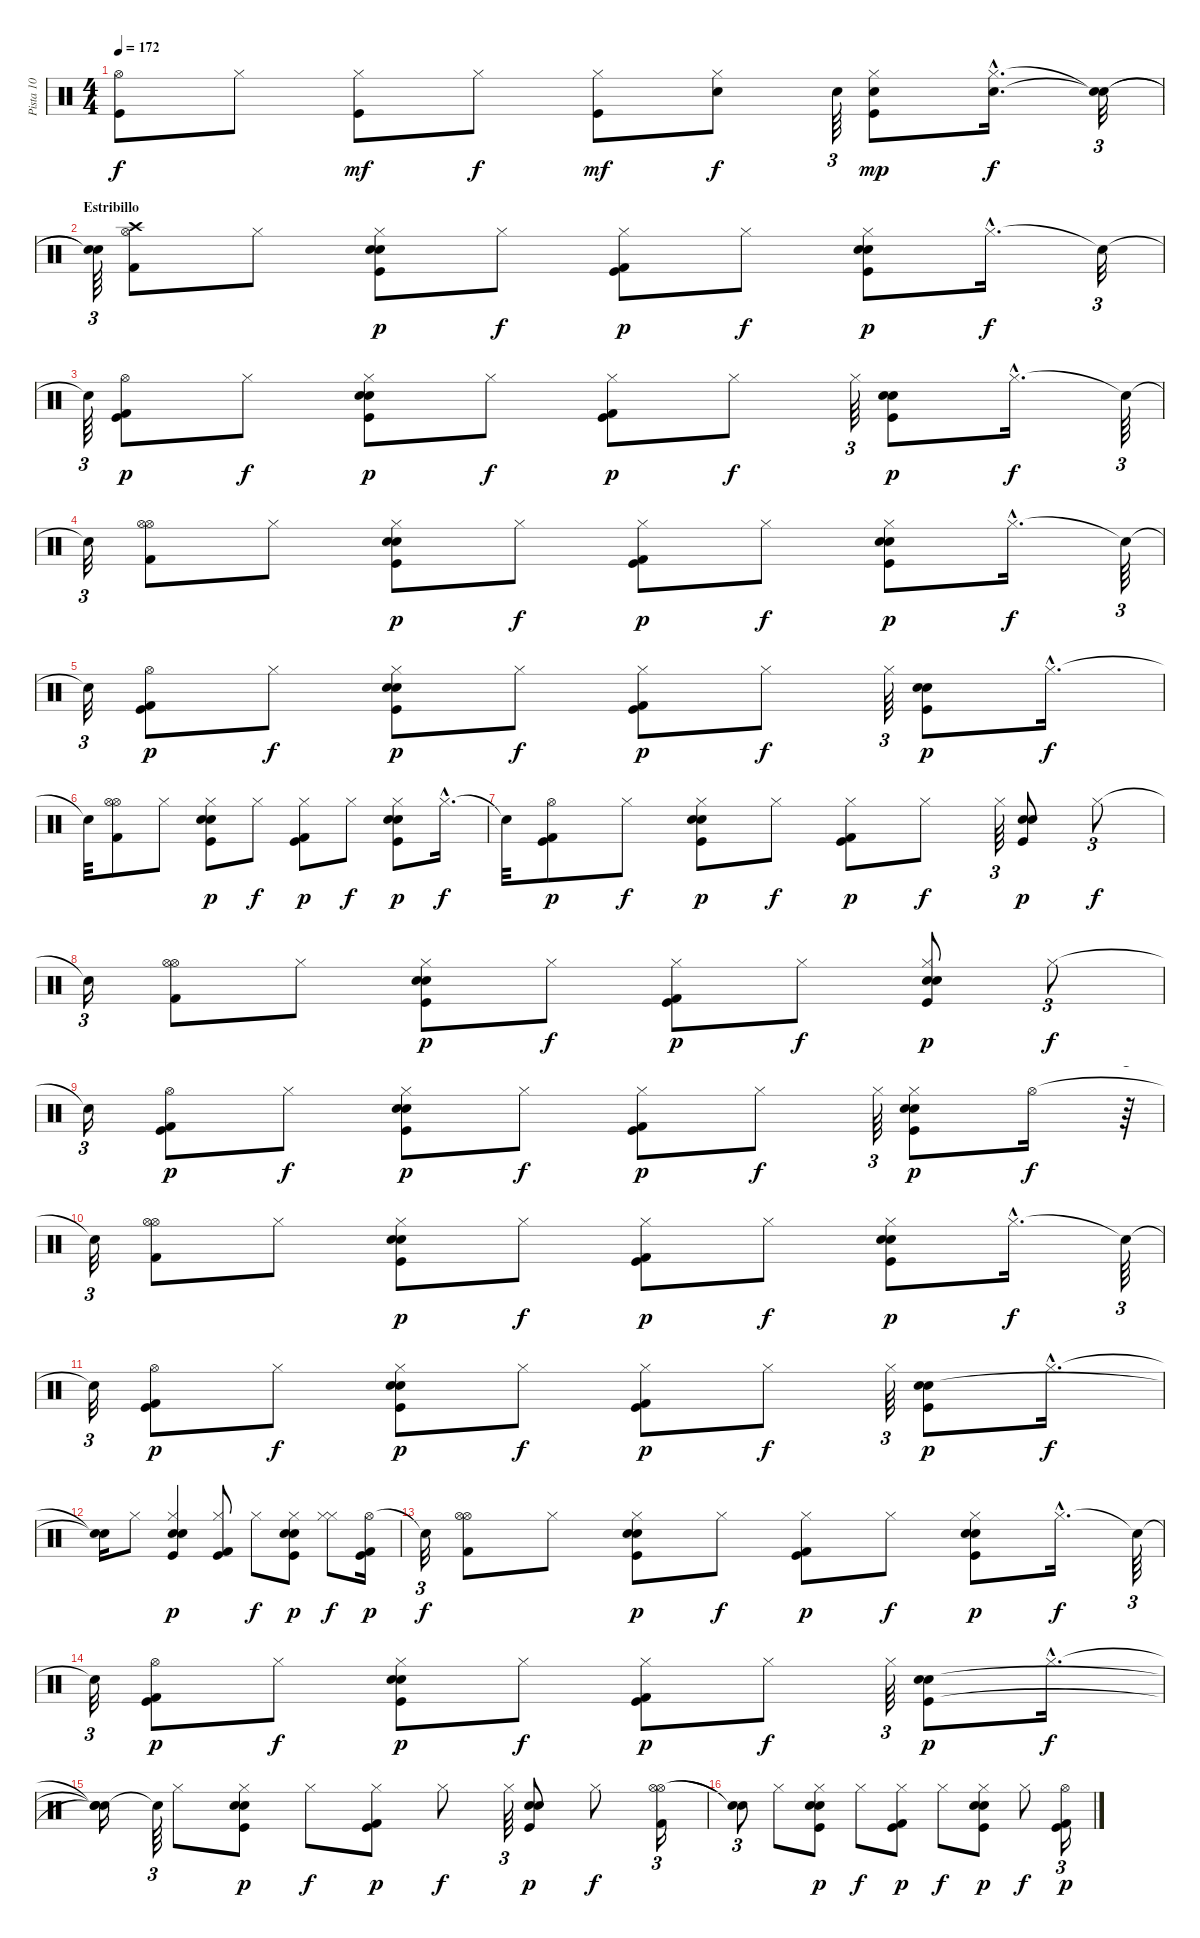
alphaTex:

\track ("Pista 10" "Pista 10") {instrument percussion}
\staff {score}
\articulation defaults
\ts (4 4)
\tempo 172
\clef neutral
\ks c
("Hi-Hat (open)" "Kick (hit)").8{dy f} "Hi-Hat (closed)".8 ("Kick (hit)" "Hi-Hat (closed)").8{dy mf} "Hi-Hat (closed)".8{dy f} ("Kick (hit)" "Hi-Hat (closed)").8{dy mf} ("Hi-Hat (closed)" "Snare (hit) 2").8{dy f} "Snare (hit) 2".64{tu (3 2)} ("Snare (hit) 2" "Hi-Hat (closed)" "Kick (hit)").8{dy mp} ("Snare (hit) 2"{hac} "Hi-Hat (closed)"{hac}).16{d dy f} ("Snare (hit)"{t} "Snare (hit)"{t}).32{tu (3 2)} |
\section ("" "Estribillo")
("Snare (hit)"{t} "Snare (hit)"{t}).64{tu (3 2)} ("Hi-Hat (open)" "Kick (hit) 2" "Crash high (hit)").8 "Hi-Hat (closed)".8 ("Hi-Hat (closed)" "Electric Snare (hit)" "Snare (hit) 2" "Kick (hit)").8{dy p} "Hi-Hat (closed)".8{dy f} ("Kick (hit) 2" "Kick (hit)" "Hi-Hat (closed)").8{dy p} "Hi-Hat (closed)".8{dy f} ("Snare (hit) 2" "Electric Snare (hit)" "Kick (hit)" "Hi-Hat (closed)").8{dy p} "Hi-Hat (closed)"{hac}.16{d dy f} "Snare (hit)"{t}.32{tu (3 2)} |
"Snare (hit)"{t}.64{tu (3 2)} ("Hi-Hat (open)" "Kick (hit) 2" "Kick (hit)").8{dy p} "Hi-Hat (closed)".8{dy f} ("Hi-Hat (closed)" "Snare (hit) 2" "Electric Snare (hit)" "Kick (hit)").8{dy p} "Hi-Hat (closed)".8{dy f} ("Hi-Hat (closed)" "Kick (hit) 2" "Kick (hit)").8{dy p} "Hi-Hat (closed)".8{dy f} "Hi-Hat (closed)".64{tu (3 2)} ("Snare (hit) 2" "Electric Snare (hit)" "Kick (hit)").8{dy p} "Hi-Hat (closed)"{hac}.16{d dy f} "Snare (hit)"{t}.64{tu (3 2)} |
"Snare (hit)"{t}.32{tu (3 2)} ("Hi-Hat (open)" "Hi-Hat (open)" "Kick (hit) 2").8 "Hi-Hat (closed)".8 ("Hi-Hat (closed)" "Electric Snare (hit)" "Snare (hit) 2" "Kick (hit)").8{dy p} "Hi-Hat (closed)".8{dy f} ("Kick (hit) 2" "Kick (hit)" "Hi-Hat (closed)").8{dy p} "Hi-Hat (closed)".8{dy f} ("Snare (hit) 2" "Electric Snare (hit)" "Kick (hit)" "Hi-Hat (closed)").8{dy p} "Hi-Hat (closed)"{hac}.16{d dy f} "Snare (hit)"{t}.64{tu (3 2)} |
"Snare (hit)"{t}.32{tu (3 2)} ("Hi-Hat (open)" "Kick (hit) 2" "Kick (hit)").8{dy p} "Hi-Hat (closed)".8{dy f} ("Hi-Hat (closed)" "Snare (hit) 2" "Electric Snare (hit)" "Kick (hit)").8{dy p} "Hi-Hat (closed)".8{dy f} ("Hi-Hat (closed)" "Kick (hit) 2" "Kick (hit)").8{dy p} "Hi-Hat (closed)".8{dy f} "Hi-Hat (closed)".64{tu (3 2)} ("Snare (hit) 2" "Electric Snare (hit)" "Kick (hit)").8{dy p} "Hi-Hat (closed)"{hac}.16{d dy f} |
"Snare (hit)"{t}.32 ("Hi-Hat (open)" "Hi-Hat (open)" "Kick (hit) 2").8 "Hi-Hat (closed)".8 ("Hi-Hat (closed)" "Electric Snare (hit)" "Snare (hit) 2" "Kick (hit)").8{dy p} "Hi-Hat (closed)".8{dy f} ("Kick (hit) 2" "Kick (hit)" "Hi-Hat (closed)").8{dy p} "Hi-Hat (closed)".8{dy f} ("Snare (hit) 2" "Electric Snare (hit)" "Kick (hit)" "Hi-Hat (closed)").8{dy p} "Hi-Hat (closed)"{hac}.16{d dy f} |
"Snare (hit)"{t}.32 ("Hi-Hat (open)" "Kick (hit) 2" "Kick (hit)").8{dy p} "Hi-Hat (closed)".8{dy f} ("Hi-Hat (closed)" "Snare (hit) 2" "Electric Snare (hit)" "Kick (hit)").8{dy p} "Hi-Hat (closed)".8{dy f} ("Hi-Hat (closed)" "Kick (hit) 2" "Kick (hit)").8{dy p} "Hi-Hat (closed)".8{dy f} "Hi-Hat (closed)".64{tu (3 2)} ("Snare (hit) 2" "Electric Snare (hit)" "Kick (hit)").8{dy p} "Hi-Hat (closed)".8{tu (3 2) dy f} |
"Snare (hit)"{t}.16{tu (3 2)} ("Hi-Hat (open)" "Hi-Hat (open)" "Kick (hit) 2").8 "Hi-Hat (closed)".8 ("Hi-Hat (closed)" "Electric Snare (hit)" "Snare (hit) 2" "Kick (hit)").8{dy p} "Hi-Hat (closed)".8{dy f} ("Kick (hit) 2" "Kick (hit)" "Hi-Hat (closed)").8{dy p} "Hi-Hat (closed)".8{dy f} ("Snare (hit) 2" "Electric Snare (hit)" "Kick (hit)" "Hi-Hat (closed)").8{dy p} "Hi-Hat (closed)".8{tu (3 2) dy f} |
"Snare (hit)"{t}.16{tu (3 2)} ("Hi-Hat (open)" "Kick (hit) 2" "Kick (hit)").8{dy p} "Hi-Hat (closed)".8{dy f} ("Hi-Hat (closed)" "Snare (hit) 2" "Electric Snare (hit)" "Kick (hit)").8{dy p} "Hi-Hat (closed)".8{dy f} ("Hi-Hat (closed)" "Kick (hit) 2" "Kick (hit)").8{dy p} "Hi-Hat (closed)".8{dy f} "Hi-Hat (closed)".64{tu (3 2)} ("Snare (hit) 2" "Electric Snare (hit)" "Kick (hit)" "Hi-Hat (closed)").8{dy p} "Hi-Hat (open)".16{dy f} r.64{tu (3 2)} |
"Snare (hit)"{t}.32{tu (3 2)} ("Hi-Hat (open)" "Hi-Hat (open)" "Kick (hit) 2").8 "Hi-Hat (closed)".8 ("Hi-Hat (closed)" "Electric Snare (hit)" "Snare (hit) 2" "Kick (hit)").8{dy p} "Hi-Hat (closed)".8{dy f} ("Kick (hit) 2" "Kick (hit)" "Hi-Hat (closed)").8{dy p} "Hi-Hat (closed)".8{dy f} ("Snare (hit) 2" "Electric Snare (hit)" "Kick (hit)" "Hi-Hat (closed)").8{dy p} "Hi-Hat (closed)"{hac}.16{d dy f} "Snare (hit)"{t}.64{tu (3 2)} |
"Snare (hit)"{t}.32{tu (3 2)} ("Hi-Hat (open)" "Kick (hit) 2" "Kick (hit)").8{dy p} "Hi-Hat (closed)".8{dy f} ("Hi-Hat (closed)" "Snare (hit) 2" "Electric Snare (hit)" "Kick (hit)").8{dy p} "Hi-Hat (closed)".8{dy f} ("Hi-Hat (closed)" "Kick (hit) 2" "Kick (hit)").8{dy p} "Hi-Hat (closed)".8{dy f} "Hi-Hat (closed)".64{tu (3 2)} ("Snare (hit) 2" "Electric Snare (hit)" "Kick (hit)").8{dy p} "Hi-Hat (closed)"{hac}.16{d dy f} |
("Snare (hit)"{t} "Snare (hit)"{t}).16 "Hi-Hat (closed)".8 ("Hi-Hat (closed)" "Electric Snare (hit)" "Snare (hit) 2" "Kick (hit)").4{dy p} ("Hi-Hat (closed)" "Kick (hit) 2" "Kick (hit)").8 "Hi-Hat (closed)".8{dy f} ("Hi-Hat (closed)" "Snare (hit) 2" "Electric Snare (hit)" "Kick (hit)").8{dy p} ("Hi-Hat (closed)" "Hi-Hat (closed)").8{dy f} ("Hi-Hat (open)" "Kick (hit) 2" "Kick (hit)").16{dy p} |
"Snare (hit)"{t}.32{tu (3 2) dy f} ("Hi-Hat (open)" "Hi-Hat (open)" "Kick (hit) 2").8 "Hi-Hat (closed)".8 ("Hi-Hat (closed)" "Electric Snare (hit)" "Snare (hit) 2" "Kick (hit)").8{dy p} "Hi-Hat (closed)".8{dy f} ("Kick (hit) 2" "Kick (hit)" "Hi-Hat (closed)").8{dy p} "Hi-Hat (closed)".8{dy f} ("Snare (hit) 2" "Electric Snare (hit)" "Kick (hit)" "Hi-Hat (closed)").8{dy p} "Hi-Hat (closed)"{hac}.16{d dy f} "Snare (hit)"{t}.64{tu (3 2)} |
"Snare (hit)"{t}.32{tu (3 2)} ("Hi-Hat (open)" "Kick (hit) 2" "Kick (hit)").8{dy p} "Hi-Hat (closed)".8{dy f} ("Hi-Hat (closed)" "Snare (hit) 2" "Electric Snare (hit)" "Kick (hit)").8{dy p} "Hi-Hat (closed)".8{dy f} ("Hi-Hat (closed)" "Kick (hit) 2" "Kick (hit)").8{dy p} "Hi-Hat (closed)".8{dy f} "Hi-Hat (closed)".64{tu (3 2)} ("Snare (hit) 2" "Electric Snare (hit)" "Kick (hit)").8{dy p} "Hi-Hat (closed)"{hac}.16{d dy f} |
("Snare (hit)"{t} "Snare (hit)"{t} "Snare (hit)"{t}).16 "Snare (hit)"{t}.64{tu (3 2)} "Hi-Hat (closed)".8 ("Hi-Hat (closed)" "Snare (hit) 2" "Electric Snare (hit)" "Kick (hit)").8{dy p} "Hi-Hat (closed)".8{dy f} ("Hi-Hat (closed)" "Kick (hit) 2" "Kick (hit)").8{dy p} "Hi-Hat (closed)".8{dy f} "Hi-Hat (closed)".64{tu (3 2)} ("Snare (hit) 2" "Electric Snare (hit)" "Kick (hit)").8{dy p} "Hi-Hat (closed)".8{dy f} ("Hi-Hat (open)" "Hi-Hat (open)" "Kick (hit) 2").16{tu (3 2)} |
("Snare (hit)"{t} "Snare (hit)"{t}).8{tu (3 2)} "Hi-Hat (closed)".8 ("Hi-Hat (closed)" "Electric Snare (hit)" "Snare (hit) 2" "Kick (hit)").8{dy p} "Hi-Hat (closed)".8{dy f} ("Kick (hit) 2" "Kick (hit)" "Hi-Hat (closed)").8{dy p} "Hi-Hat (closed)".8{dy f} ("Snare (hit) 2" "Electric Snare (hit)" "Kick (hit)" "Hi-Hat (closed)").8{dy p} "Hi-Hat (closed)".8{dy f} ("Hi-Hat (open)" "Kick (hit) 2" "Kick (hit)").16{tu (3 2) dy p}
